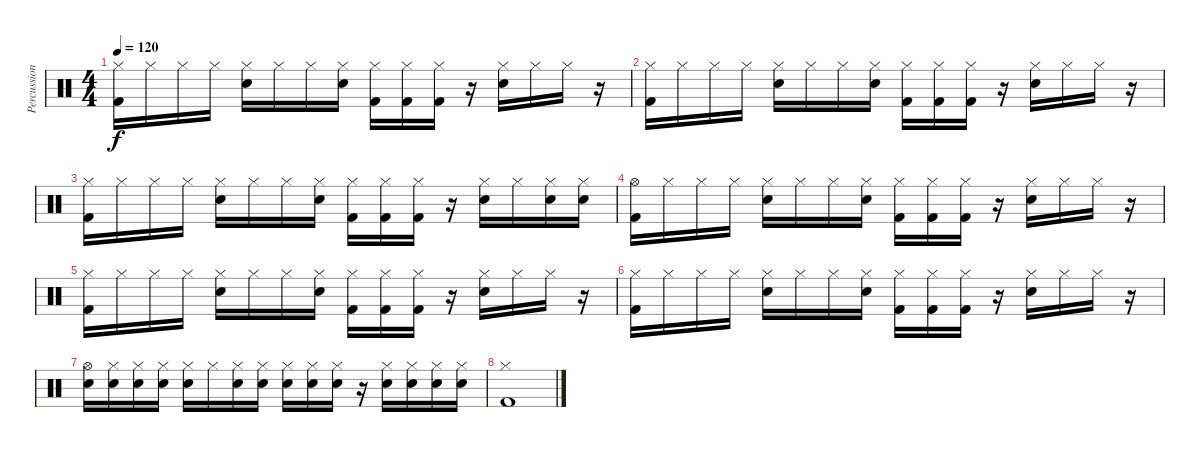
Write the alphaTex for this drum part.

\track ("Percussion" "Percussion") {instrument percussion}
\staff {score}
\articulation defaults
\ts (4 4)
\tempo 120
\clef neutral
\ks c
("Hi-Hat (closed)" "Kick (hit) 2").16{dy f} "Hi-Hat (closed)".16 "Hi-Hat (closed)".16 "Hi-Hat (closed)".16 ("Hi-Hat (closed)" "Snare (hit) 2").16 "Hi-Hat (closed)".16 "Hi-Hat (closed)".16 ("Hi-Hat (closed)" "Snare (hit) 2").16 ("Hi-Hat (closed)" "Kick (hit) 2").16 ("Hi-Hat (closed)" "Kick (hit) 2").16 ("Hi-Hat (closed)" "Kick (hit) 2").16 r.16 ("Hi-Hat (closed)" "Snare (hit) 2").16 "Hi-Hat (closed)".16 "Hi-Hat (closed)".16 r.16 |
("Hi-Hat (closed)" "Kick (hit) 2").16 "Hi-Hat (closed)".16 "Hi-Hat (closed)".16 "Hi-Hat (closed)".16 ("Hi-Hat (closed)" "Snare (hit) 2").16 "Hi-Hat (closed)".16 "Hi-Hat (closed)".16 ("Hi-Hat (closed)" "Snare (hit) 2").16 ("Hi-Hat (closed)" "Kick (hit) 2").16 ("Hi-Hat (closed)" "Kick (hit) 2").16 ("Hi-Hat (closed)" "Kick (hit) 2").16 r.16 ("Hi-Hat (closed)" "Snare (hit) 2").16 "Hi-Hat (closed)".16 "Hi-Hat (closed)".16 r.16 |
("Hi-Hat (closed)" "Kick (hit) 2").16 "Hi-Hat (closed)".16 "Hi-Hat (closed)".16 "Hi-Hat (closed)".16 ("Hi-Hat (closed)" "Snare (hit) 2").16 "Hi-Hat (closed)".16 "Hi-Hat (closed)".16 ("Hi-Hat (closed)" "Snare (hit) 2").16 ("Hi-Hat (closed)" "Kick (hit) 2").16 ("Hi-Hat (closed)" "Kick (hit) 2").16 ("Hi-Hat (closed)" "Kick (hit) 2").16 r.16 ("Hi-Hat (closed)" "Snare (hit) 2").16 "Hi-Hat (closed)".16 ("Hi-Hat (closed)" "Snare (hit) 2").16 ("Hi-Hat (closed)" "Snare (hit) 2").16 |
("Hi-Hat (open)" "Kick (hit) 2").16 "Hi-Hat (closed)".16 "Hi-Hat (closed)".16 "Hi-Hat (closed)".16 ("Hi-Hat (closed)" "Snare (hit) 2").16 "Hi-Hat (closed)".16 "Hi-Hat (closed)".16 ("Hi-Hat (closed)" "Snare (hit) 2").16 ("Hi-Hat (closed)" "Kick (hit) 2").16 ("Hi-Hat (closed)" "Kick (hit) 2").16 ("Hi-Hat (closed)" "Kick (hit) 2").16 r.16 ("Hi-Hat (closed)" "Snare (hit) 2").16 "Hi-Hat (closed)".16 "Hi-Hat (closed)".16 r.16 |
("Hi-Hat (closed)" "Kick (hit) 2").16 "Hi-Hat (closed)".16 "Hi-Hat (closed)".16 "Hi-Hat (closed)".16 ("Hi-Hat (closed)" "Snare (hit) 2").16 "Hi-Hat (closed)".16 "Hi-Hat (closed)".16 ("Hi-Hat (closed)" "Snare (hit) 2").16 ("Hi-Hat (closed)" "Kick (hit) 2").16 ("Hi-Hat (closed)" "Kick (hit) 2").16 ("Hi-Hat (closed)" "Kick (hit) 2").16 r.16 ("Hi-Hat (closed)" "Snare (hit) 2").16 "Hi-Hat (closed)".16 "Hi-Hat (closed)".16 r.16 |
("Hi-Hat (closed)" "Kick (hit) 2").16 "Hi-Hat (closed)".16 "Hi-Hat (closed)".16 "Hi-Hat (closed)".16 ("Hi-Hat (closed)" "Snare (hit) 2").16 "Hi-Hat (closed)".16 "Hi-Hat (closed)".16 ("Hi-Hat (closed)" "Snare (hit) 2").16 ("Hi-Hat (closed)" "Kick (hit) 2").16 ("Hi-Hat (closed)" "Kick (hit) 2").16 ("Hi-Hat (closed)" "Kick (hit) 2").16 r.16 ("Hi-Hat (closed)" "Snare (hit) 2").16 "Hi-Hat (closed)".16 "Hi-Hat (closed)".16 r.16 |
("Hi-Hat (open)" "Snare (hit) 2").16 ("Hi-Hat (closed)" "Snare (hit) 2").16 ("Hi-Hat (closed)" "Snare (hit) 2").16 ("Hi-Hat (closed)" "Snare (hit) 2").16 ("Hi-Hat (closed)" "Snare (hit) 2").16 "Hi-Hat (closed)".16 ("Hi-Hat (closed)" "Snare (hit) 2").16 ("Hi-Hat (closed)" "Snare (hit) 2").16 ("Hi-Hat (closed)" "Snare (hit) 2").16 ("Hi-Hat (closed)" "Snare (hit) 2").16 ("Hi-Hat (closed)" "Snare (hit) 2").16 r.16 ("Hi-Hat (closed)" "Snare (hit) 2").16 ("Hi-Hat (closed)" "Snare (hit) 2").16 ("Hi-Hat (closed)" "Snare (hit) 2").16 ("Hi-Hat (closed)" "Snare (hit) 2").16 |
("Hi-Hat (closed)" "Kick (hit) 2").1
